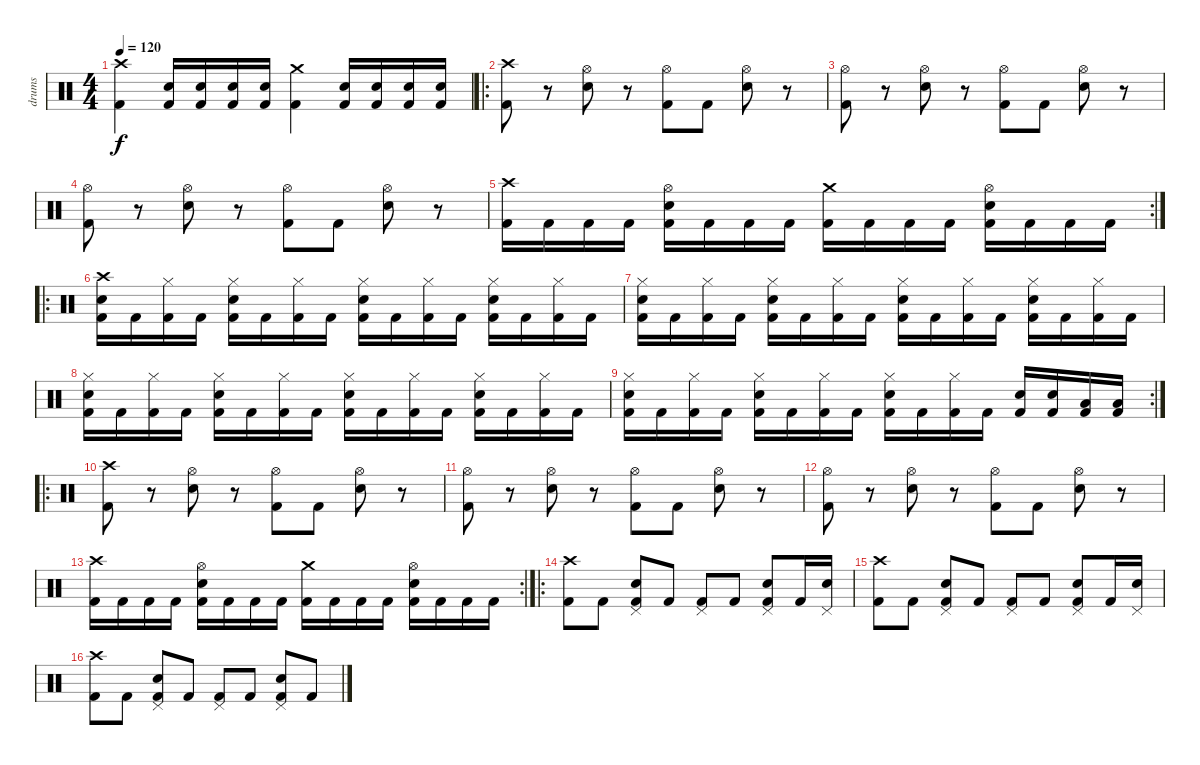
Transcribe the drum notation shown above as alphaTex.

\track ("drums" "drums") {instrument percussion}
\staff {score}
\articulation defaults
\ts (4 4)
\tempo 120
\clef neutral
\ks c
("Crash high (hit)" "Kick (hit) 2").4{dy f} ("Snare (hit) 2" "Kick (hit) 2").16 ("Snare (hit) 2" "Kick (hit) 2").16 ("Snare (hit) 2" "Kick (hit) 2").16 ("Snare (hit) 2" "Kick (hit) 2").16 ("Crash medium (hit)" "Kick (hit) 2").4 ("Snare (hit) 2" "Kick (hit) 2").16 ("Snare (hit) 2" "Kick (hit) 2").16 ("Snare (hit) 2" "Kick (hit) 2").16 ("Snare (hit) 2" "Kick (hit) 2").16 |
\ro
("Crash high (hit)" "Kick (hit) 2").8 r.8 ("Hi-Hat (open)" "Snare (hit) 2").8 r.8 ("Hi-Hat (open)" "Kick (hit) 2").8 "Kick (hit) 2".8 ("Hi-Hat (open)" "Snare (hit) 2").8 r.8 |
("Hi-Hat (open)" "Kick (hit) 2").8 r.8 ("Hi-Hat (open)" "Snare (hit) 2").8 r.8 ("Hi-Hat (open)" "Kick (hit) 2").8 "Kick (hit) 2".8 ("Hi-Hat (open)" "Snare (hit) 2").8 r.8 |
("Hi-Hat (open)" "Kick (hit) 2").8 r.8 ("Hi-Hat (open)" "Snare (hit) 2").8 r.8 ("Hi-Hat (open)" "Kick (hit) 2").8 "Kick (hit) 2".8 ("Hi-Hat (open)" "Snare (hit) 2").8 r.8 |
\rc 2
("Crash high (hit)" "Kick (hit) 2").16 "Kick (hit) 2".16 "Kick (hit) 2".16 "Kick (hit) 2".16 ("Hi-Hat (open)" "Snare (hit) 2" "Kick (hit) 2").16 "Kick (hit) 2".16 "Kick (hit) 2".16 "Kick (hit) 2".16 ("Crash medium (hit)" "Kick (hit) 2").16 "Kick (hit) 2".16 "Kick (hit) 2".16 "Kick (hit) 2".16 ("Hi-Hat (open)" "Snare (hit) 2" "Kick (hit) 2").16 "Kick (hit) 2".16 "Kick (hit) 2".16 "Kick (hit) 2".16 |
\ro
("Crash high (hit)" "Snare (hit) 2" "Kick (hit) 2").16 "Kick (hit) 2".16 ("Hi-Hat (closed)" "Kick (hit) 2").16 "Kick (hit) 2".16 ("Hi-Hat (closed)" "Snare (hit) 2" "Kick (hit) 2").16 "Kick (hit) 2".16 ("Hi-Hat (closed)" "Kick (hit) 2").16 "Kick (hit) 2".16 ("Hi-Hat (closed)" "Snare (hit) 2" "Kick (hit) 2").16 "Kick (hit) 2".16 ("Hi-Hat (closed)" "Kick (hit) 2").16 "Kick (hit) 2".16 ("Hi-Hat (closed)" "Snare (hit) 2" "Kick (hit) 2").16 "Kick (hit) 2".16 ("Hi-Hat (closed)" "Kick (hit) 2").16 "Kick (hit) 2".16 |
("Hi-Hat (closed)" "Snare (hit) 2" "Kick (hit) 2").16 "Kick (hit) 2".16 ("Hi-Hat (closed)" "Kick (hit) 2").16 "Kick (hit) 2".16 ("Hi-Hat (closed)" "Snare (hit) 2" "Kick (hit) 2").16 "Kick (hit) 2".16 ("Hi-Hat (closed)" "Kick (hit) 2").16 "Kick (hit) 2".16 ("Hi-Hat (closed)" "Snare (hit) 2" "Kick (hit) 2").16 "Kick (hit) 2".16 ("Hi-Hat (closed)" "Kick (hit) 2").16 "Kick (hit) 2".16 ("Hi-Hat (closed)" "Snare (hit) 2" "Kick (hit) 2").16 "Kick (hit) 2".16 ("Hi-Hat (closed)" "Kick (hit) 2").16 "Kick (hit) 2".16 |
("Hi-Hat (closed)" "Snare (hit) 2" "Kick (hit) 2").16 "Kick (hit) 2".16 ("Hi-Hat (closed)" "Kick (hit) 2").16 "Kick (hit) 2".16 ("Hi-Hat (closed)" "Snare (hit) 2" "Kick (hit) 2").16 "Kick (hit) 2".16 ("Hi-Hat (closed)" "Kick (hit) 2").16 "Kick (hit) 2".16 ("Hi-Hat (closed)" "Snare (hit) 2" "Kick (hit) 2").16 "Kick (hit) 2".16 ("Hi-Hat (closed)" "Kick (hit) 2").16 "Kick (hit) 2".16 ("Hi-Hat (closed)" "Snare (hit) 2" "Kick (hit) 2").16 "Kick (hit) 2".16 ("Hi-Hat (closed)" "Kick (hit) 2").16 "Kick (hit) 2".16 |
\rc 2
("Hi-Hat (closed)" "Snare (hit) 2" "Kick (hit) 2").16 "Kick (hit) 2".16 ("Hi-Hat (closed)" "Kick (hit) 2").16 "Kick (hit) 2".16 ("Hi-Hat (closed)" "Snare (hit) 2" "Kick (hit) 2").16 "Kick (hit) 2".16 ("Hi-Hat (closed)" "Kick (hit) 2").16 "Kick (hit) 2".16 ("Hi-Hat (closed)" "Snare (hit) 2" "Kick (hit) 2").16 "Kick (hit) 2".16 ("Hi-Hat (closed)" "Kick (hit) 2").16 "Kick (hit) 2".16 ("Snare (hit) 2" "Kick (hit) 2").16 ("Snare (hit) 2" "Kick (hit) 2").16 ("Low Tom (hit)" "Kick (hit) 2").16 ("Low Tom (hit)" "Kick (hit) 2").16 |
\ro
("Crash high (hit)" "Kick (hit) 2").8 r.8 ("Hi-Hat (open)" "Snare (hit) 2").8 r.8 ("Hi-Hat (open)" "Kick (hit) 2").8 "Kick (hit) 2".8 ("Hi-Hat (open)" "Snare (hit) 2").8 r.8 |
("Hi-Hat (open)" "Kick (hit) 2").8 r.8 ("Hi-Hat (open)" "Snare (hit) 2").8 r.8 ("Hi-Hat (open)" "Kick (hit) 2").8 "Kick (hit) 2".8 ("Hi-Hat (open)" "Snare (hit) 2").8 r.8 |
("Hi-Hat (open)" "Kick (hit) 2").8 r.8 ("Hi-Hat (open)" "Snare (hit) 2").8 r.8 ("Hi-Hat (open)" "Kick (hit) 2").8 "Kick (hit) 2".8 ("Hi-Hat (open)" "Snare (hit) 2").8 r.8 |
\rc 2
("Crash high (hit)" "Kick (hit) 2").16 "Kick (hit) 2".16 "Kick (hit) 2".16 "Kick (hit) 2".16 ("Hi-Hat (open)" "Snare (hit) 2" "Kick (hit) 2").16 "Kick (hit) 2".16 "Kick (hit) 2".16 "Kick (hit) 2".16 ("Crash medium (hit)" "Kick (hit) 2").16 "Kick (hit) 2".16 "Kick (hit) 2".16 "Kick (hit) 2".16 ("Hi-Hat (open)" "Snare (hit) 2" "Kick (hit) 2").16 "Kick (hit) 2".16 "Kick (hit) 2".16 "Kick (hit) 2".16 |
\ro
("Crash high (hit)" "Kick (hit) 2").8 "Kick (hit) 2".8 ("Pedal Hi-Hat (hit)" "Snare (hit) 2" "Kick (hit) 2").8 "Kick (hit) 2".8 ("Pedal Hi-Hat (hit)" "Kick (hit) 2").8 "Kick (hit) 2".8 ("Pedal Hi-Hat (hit)" "Snare (hit) 2" "Kick (hit) 2").8 "Kick (hit) 2".16 ("Pedal Hi-Hat (hit)" "Snare (hit) 2").16 |
("Crash high (hit)" "Kick (hit) 2").8 "Kick (hit) 2".8 ("Pedal Hi-Hat (hit)" "Snare (hit) 2" "Kick (hit) 2").8 "Kick (hit) 2".8 ("Pedal Hi-Hat (hit)" "Kick (hit) 2").8 "Kick (hit) 2".8 ("Pedal Hi-Hat (hit)" "Snare (hit) 2" "Kick (hit) 2").8 "Kick (hit) 2".16 ("Pedal Hi-Hat (hit)" "Snare (hit) 2").16 |
("Crash high (hit)" "Kick (hit) 2").8 "Kick (hit) 2".8 ("Pedal Hi-Hat (hit)" "Snare (hit) 2" "Kick (hit) 2").8 "Kick (hit) 2".8 ("Pedal Hi-Hat (hit)" "Kick (hit) 2").8 "Kick (hit) 2".8 ("Pedal Hi-Hat (hit)" "Snare (hit) 2" "Kick (hit) 2").8 "Kick (hit) 2".8
